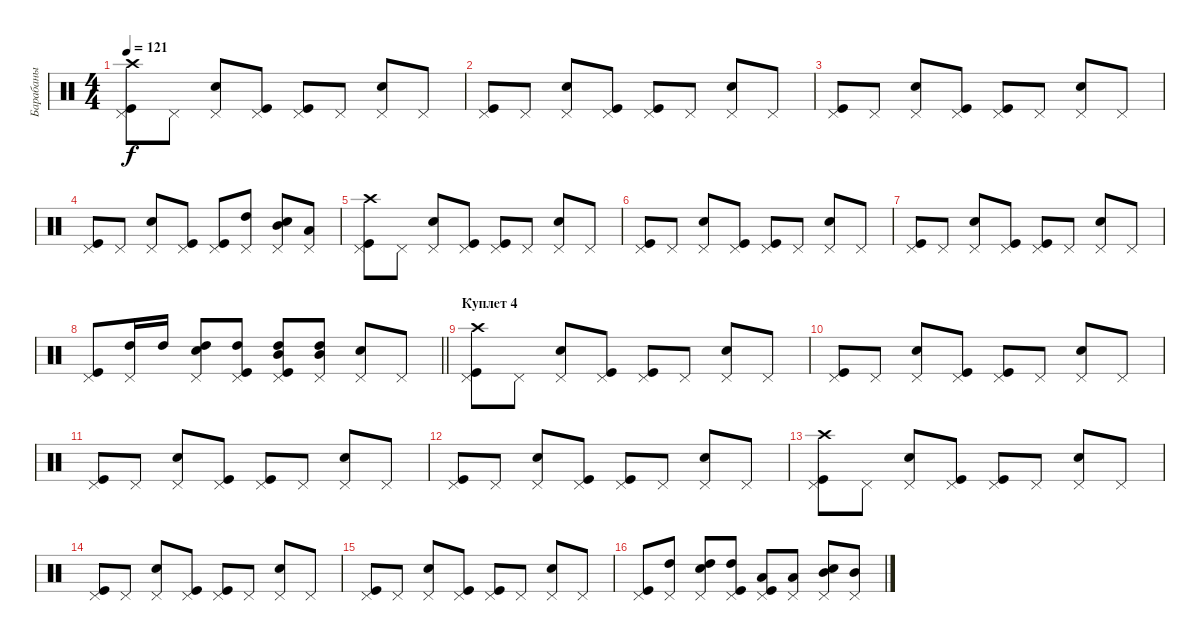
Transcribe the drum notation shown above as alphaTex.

\track ("Барабаны" "Барабаны") {instrument percussion}
\staff {score}
\articulation defaults
\ts (4 4)
\tempo 121
\clef neutral
\ks c
("Kick (hit)" "Pedal Hi-Hat (hit)" "Crash high (hit)").8{dy f} "Pedal Hi-Hat (hit)".8 ("Snare (hit) 2" "Pedal Hi-Hat (hit)").8 ("Kick (hit)" "Pedal Hi-Hat (hit)").8 ("Kick (hit)" "Pedal Hi-Hat (hit)").8 "Pedal Hi-Hat (hit)".8 ("Snare (hit) 2" "Pedal Hi-Hat (hit)").8 "Pedal Hi-Hat (hit)".8 |
("Kick (hit)" "Pedal Hi-Hat (hit)").8 "Pedal Hi-Hat (hit)".8 ("Snare (hit) 2" "Pedal Hi-Hat (hit)").8 ("Kick (hit)" "Pedal Hi-Hat (hit)").8 ("Kick (hit)" "Pedal Hi-Hat (hit)").8 "Pedal Hi-Hat (hit)".8 ("Snare (hit) 2" "Pedal Hi-Hat (hit)").8 "Pedal Hi-Hat (hit)".8 |
("Kick (hit)" "Pedal Hi-Hat (hit)").8 "Pedal Hi-Hat (hit)".8 ("Snare (hit) 2" "Pedal Hi-Hat (hit)").8 ("Kick (hit)" "Pedal Hi-Hat (hit)").8 ("Kick (hit)" "Pedal Hi-Hat (hit)").8 "Pedal Hi-Hat (hit)".8 ("Snare (hit) 2" "Pedal Hi-Hat (hit)").8 "Pedal Hi-Hat (hit)".8 |
("Kick (hit)" "Pedal Hi-Hat (hit)").8 "Pedal Hi-Hat (hit)".8 ("Snare (hit) 2" "Pedal Hi-Hat (hit)").8 ("Kick (hit)" "Pedal Hi-Hat (hit)").8 ("Kick (hit)" "Pedal Hi-Hat (hit)").8 ("Pedal Hi-Hat (hit)" "High Tom (hit)").8 ("Snare (hit) 2" "Pedal Hi-Hat (hit)" "Mid Tom (hit)").8 ("Pedal Hi-Hat (hit)" "Low Floor Tom (hit)").8 |
("Kick (hit)" "Pedal Hi-Hat (hit)" "Crash high (hit)").8 "Pedal Hi-Hat (hit)".8 ("Snare (hit) 2" "Pedal Hi-Hat (hit)").8 ("Kick (hit)" "Pedal Hi-Hat (hit)").8 ("Kick (hit)" "Pedal Hi-Hat (hit)").8 "Pedal Hi-Hat (hit)".8 ("Snare (hit) 2" "Pedal Hi-Hat (hit)").8 "Pedal Hi-Hat (hit)".8 |
("Kick (hit)" "Pedal Hi-Hat (hit)").8 "Pedal Hi-Hat (hit)".8 ("Snare (hit) 2" "Pedal Hi-Hat (hit)").8 ("Kick (hit)" "Pedal Hi-Hat (hit)").8 ("Kick (hit)" "Pedal Hi-Hat (hit)").8 "Pedal Hi-Hat (hit)".8 ("Snare (hit) 2" "Pedal Hi-Hat (hit)").8 "Pedal Hi-Hat (hit)".8 |
("Kick (hit)" "Pedal Hi-Hat (hit)").8 "Pedal Hi-Hat (hit)".8 ("Snare (hit) 2" "Pedal Hi-Hat (hit)").8 ("Kick (hit)" "Pedal Hi-Hat (hit)").8 ("Kick (hit)" "Pedal Hi-Hat (hit)").8 "Pedal Hi-Hat (hit)".8 ("Snare (hit) 2" "Pedal Hi-Hat (hit)").8 "Pedal Hi-Hat (hit)".8 |
\barLineRight lightlight
("Kick (hit)" "Pedal Hi-Hat (hit)").8 ("Pedal Hi-Hat (hit)" "High Tom (hit)").16 "High Tom (hit)".16 ("Snare (hit) 2" "Pedal Hi-Hat (hit)" "High Tom (hit)").8 ("Kick (hit)" "Pedal Hi-Hat (hit)" "High Tom (hit)").8 ("Kick (hit)" "Pedal Hi-Hat (hit)" "Mid Tom (hit)" "High Tom (hit)").8 ("Pedal Hi-Hat (hit)" "Mid Tom (hit)" "High Tom (hit)").8 ("Snare (hit) 2" "Pedal Hi-Hat (hit)").8 "Pedal Hi-Hat (hit)".8 |
\section ("" "Куплет 4")
("Kick (hit)" "Pedal Hi-Hat (hit)" "Crash high (hit)").8 "Pedal Hi-Hat (hit)".8 ("Snare (hit) 2" "Pedal Hi-Hat (hit)").8 ("Kick (hit)" "Pedal Hi-Hat (hit)").8 ("Kick (hit)" "Pedal Hi-Hat (hit)").8 "Pedal Hi-Hat (hit)".8 ("Snare (hit) 2" "Pedal Hi-Hat (hit)").8 "Pedal Hi-Hat (hit)".8 |
("Kick (hit)" "Pedal Hi-Hat (hit)").8 "Pedal Hi-Hat (hit)".8 ("Snare (hit) 2" "Pedal Hi-Hat (hit)").8 ("Kick (hit)" "Pedal Hi-Hat (hit)").8 ("Kick (hit)" "Pedal Hi-Hat (hit)").8 "Pedal Hi-Hat (hit)".8 ("Snare (hit) 2" "Pedal Hi-Hat (hit)").8 "Pedal Hi-Hat (hit)".8 |
("Kick (hit)" "Pedal Hi-Hat (hit)").8 "Pedal Hi-Hat (hit)".8 ("Snare (hit) 2" "Pedal Hi-Hat (hit)").8 ("Kick (hit)" "Pedal Hi-Hat (hit)").8 ("Kick (hit)" "Pedal Hi-Hat (hit)").8 "Pedal Hi-Hat (hit)".8 ("Snare (hit) 2" "Pedal Hi-Hat (hit)").8 "Pedal Hi-Hat (hit)".8 |
("Kick (hit)" "Pedal Hi-Hat (hit)").8 "Pedal Hi-Hat (hit)".8 ("Snare (hit) 2" "Pedal Hi-Hat (hit)").8 ("Kick (hit)" "Pedal Hi-Hat (hit)").8 ("Kick (hit)" "Pedal Hi-Hat (hit)").8 "Pedal Hi-Hat (hit)".8 ("Snare (hit) 2" "Pedal Hi-Hat (hit)").8 "Pedal Hi-Hat (hit)".8 |
("Kick (hit)" "Pedal Hi-Hat (hit)" "Crash high (hit)").8 "Pedal Hi-Hat (hit)".8 ("Snare (hit) 2" "Pedal Hi-Hat (hit)").8 ("Kick (hit)" "Pedal Hi-Hat (hit)").8 ("Kick (hit)" "Pedal Hi-Hat (hit)").8 "Pedal Hi-Hat (hit)".8 ("Snare (hit) 2" "Pedal Hi-Hat (hit)").8 "Pedal Hi-Hat (hit)".8 |
("Kick (hit)" "Pedal Hi-Hat (hit)").8 "Pedal Hi-Hat (hit)".8 ("Snare (hit) 2" "Pedal Hi-Hat (hit)").8 ("Kick (hit)" "Pedal Hi-Hat (hit)").8 ("Kick (hit)" "Pedal Hi-Hat (hit)").8 "Pedal Hi-Hat (hit)".8 ("Snare (hit) 2" "Pedal Hi-Hat (hit)").8 "Pedal Hi-Hat (hit)".8 |
("Kick (hit)" "Pedal Hi-Hat (hit)").8 "Pedal Hi-Hat (hit)".8 ("Snare (hit) 2" "Pedal Hi-Hat (hit)").8 ("Kick (hit)" "Pedal Hi-Hat (hit)").8 ("Kick (hit)" "Pedal Hi-Hat (hit)").8 "Pedal Hi-Hat (hit)".8 ("Snare (hit) 2" "Pedal Hi-Hat (hit)").8 "Pedal Hi-Hat (hit)".8 |
("Kick (hit)" "Pedal Hi-Hat (hit)").8 ("Pedal Hi-Hat (hit)" "High Tom (hit)").8 ("Snare (hit) 2" "Pedal Hi-Hat (hit)" "High Tom (hit)").8 ("Kick (hit)" "Pedal Hi-Hat (hit)" "High Tom (hit)").8 ("Kick (hit)" "Pedal Hi-Hat (hit)" "Low Tom (hit)").8 ("Pedal Hi-Hat (hit)" "Low Tom (hit)").8 ("Snare (hit) 2" "Pedal Hi-Hat (hit)" "Mid Tom (hit)").8 ("Pedal Hi-Hat (hit)" "Mid Tom (hit)").8
